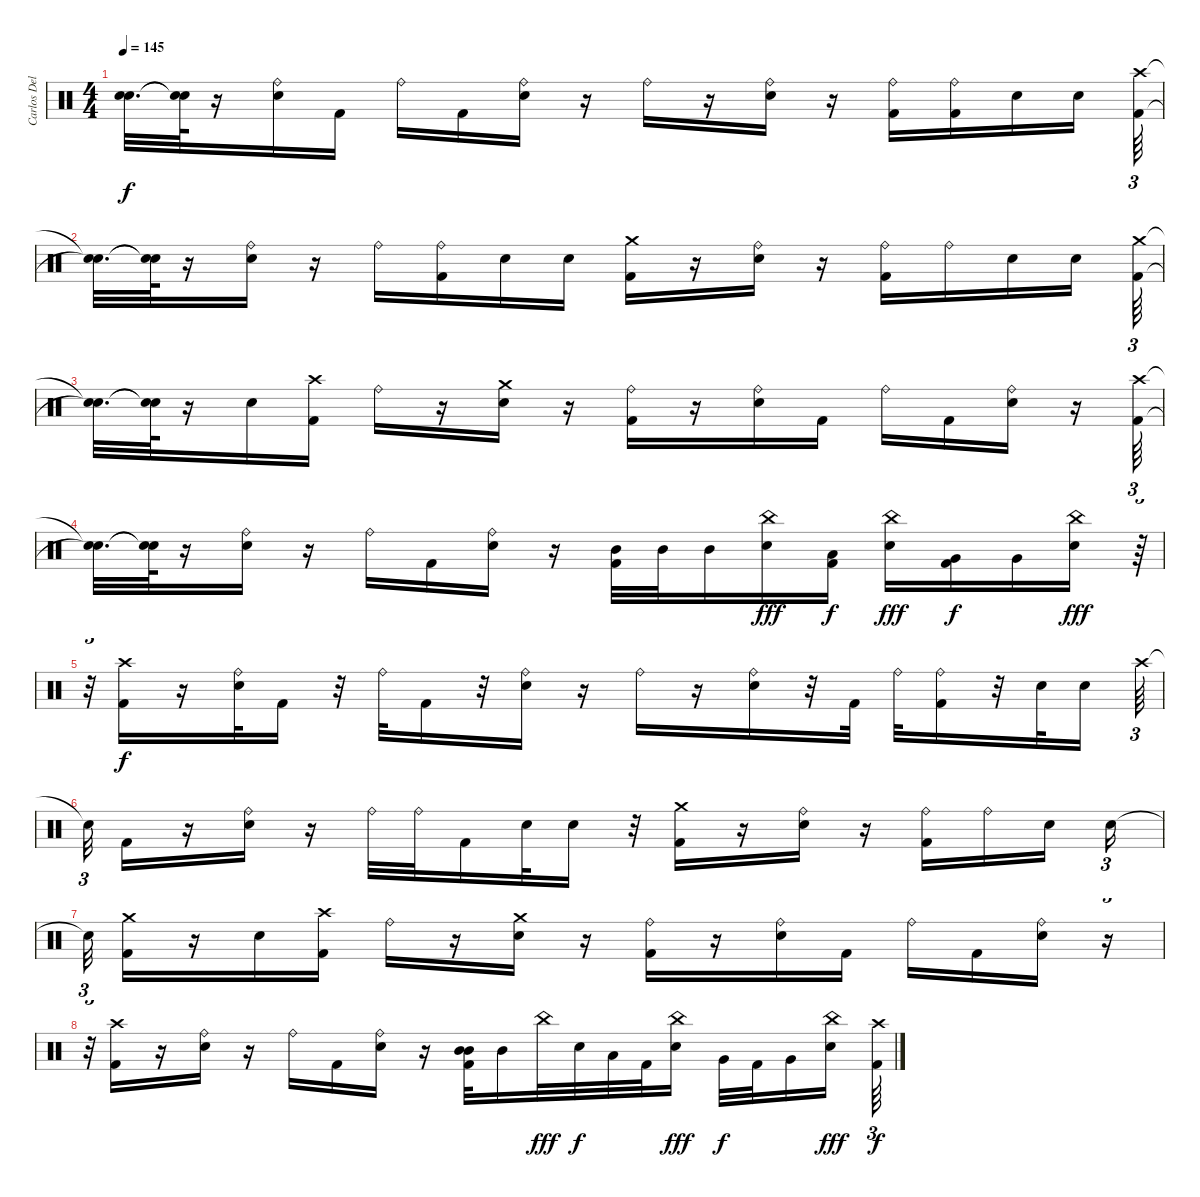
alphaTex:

\track ("Carlos Delgado" "Carlos Del") {instrument percussion}
\staff {score}
\articulation defaults
\ts (4 4)
\tempo 145
\clef neutral
\ks c
("Snare (hit)"{t} "Snare (hit)"{t}).32{d dy f} ("Snare (hit)"{t} "Snare (hit)"{t}).64 r.16 ("Ride (bell)" "Electric Snare (hit)").16 "Kick (hit) 2".16 "Ride (bell)".16 "Kick (hit) 2".16 ("Ride (bell)" "Electric Snare (hit)").16 r.16 "Ride (bell)".16 r.16 ("Ride (bell)" "Electric Snare (hit)").16 r.16 ("Kick (hit) 2" "Ride (bell)").16 ("Kick (hit) 2" "Ride (bell)").16 "Electric Snare (hit)".16 "Electric Snare (hit)".16 ("Crash high (hit)" "Kick (hit) 2").64{tu (3 2)} |
("Snare (hit)"{t} "Snare (hit)"{t}).32{d} ("Snare (hit)"{t} "Snare (hit)"{t}).64 r.16 ("Ride (bell)" "Electric Snare (hit)").16 r.16 "Ride (bell)".16 ("Ride (bell)" "Kick (hit) 2").16 "Electric Snare (hit)".16 "Electric Snare (hit)".16 ("Crash medium (hit)" "Kick (hit) 2").16 r.16 ("Ride (bell)" "Electric Snare (hit)").16 r.16 ("Kick (hit) 2" "Ride (bell)").16 "Ride (bell)".16 "Electric Snare (hit)".16 "Electric Snare (hit)".16 ("Kick (hit) 2" "Crash medium (hit)").64{tu (3 2)} |
("Snare (hit)"{t} "Snare (hit)"{t}).32{d} ("Snare (hit)"{t} "Snare (hit)"{t}).64 r.16 "Electric Snare (hit)".16 ("Kick (hit) 2" "Crash high (hit)").16 "Ride (bell)".16 r.16 ("Crash medium (hit)" "Electric Snare (hit)").16 r.16 ("Ride (bell)" "Kick (hit) 2").16 r.16 ("Ride (bell)" "Electric Snare (hit)").16 "Kick (hit) 2".16 "Ride (bell)".16 "Kick (hit) 2".16 ("Ride (bell)" "Electric Snare (hit)").16 r.16 ("Kick (hit) 2" "Crash high (hit)").64{tu (3 2)} |
("Snare (hit)"{t} "Snare (hit)"{t}).32{d} ("Snare (hit)"{t} "Snare (hit)"{t}).64 r.16 ("Ride (bell)" "Electric Snare (hit)").16 r.16 "Ride (bell)".16 "Kick (hit) 2".16 ("Ride (bell)" "Electric Snare (hit)").16 r.16 ("Mid Tom (hit)" "Kick (hit) 2").32 "Mid Tom (hit)".32 "Mid Tom (hit)".16 ("China (hit)" "Electric Snare (hit)").16{dy fff} ("Low Tom (hit)" "Kick (hit) 2").16{dy f} ("China (hit)" "Electric Snare (hit)").16{dy fff} ("Very Low Tom (hit)" "Kick (hit) 2").16{dy f} "Very Low Tom (hit)".16 ("Electric Snare (hit)" "China (hit)").16{dy fff} r.64{tu (3 2)} |
r.32{tu (3 2)} ("Crash high (hit)" "Kick (hit) 2").16{dy f} r.16 ("Ride (bell)" "Electric Snare (hit)").32 "Kick (hit) 2".16 r.32 "Ride (bell)".32 "Kick (hit) 2".16 r.32 ("Ride (bell)" "Electric Snare (hit)").16 r.16 "Ride (bell)".16 r.16 ("Ride (bell)" "Electric Snare (hit)").16 r.32 "Kick (hit) 2".32 "Ride (bell)".32 ("Kick (hit) 2" "Ride (bell)").16 r.32 "Electric Snare (hit)".32 "Electric Snare (hit)".16{beam splitsecondary} "Crash high (hit)".64{tu (3 2)} |
"Snare (hit)"{t}.32{tu (3 2)} "Kick (hit) 2".16 r.16 ("Ride (bell)" "Electric Snare (hit)").16 r.16 "Ride (bell)".32 "Ride (bell)".32 "Kick (hit) 2".16 "Electric Snare (hit)".32 "Electric Snare (hit)".16 r.32 ("Crash medium (hit)" "Kick (hit) 2").16 r.16 ("Ride (bell)" "Electric Snare (hit)").16 r.16 ("Kick (hit) 2" "Ride (bell)").16 "Ride (bell)".16 "Electric Snare (hit)".16{beam splitsecondary} "Electric Snare (hit)".16{tu (3 2)} |
"Snare (hit)"{t}.32{tu (3 2)} ("Kick (hit) 2" "Crash medium (hit)").16 r.16 "Electric Snare (hit)".16 ("Kick (hit) 2" "Crash high (hit)").16 "Ride (bell)".16 r.16 ("Crash medium (hit)" "Electric Snare (hit)").16 r.16 ("Ride (bell)" "Kick (hit) 2").16 r.16 ("Ride (bell)" "Electric Snare (hit)").16 "Kick (hit) 2".16 "Ride (bell)".16 "Kick (hit) 2".16 ("Ride (bell)" "Electric Snare (hit)").16 r.16{tu (3 2)} |
r.32{tu (3 2)} ("Kick (hit) 2" "Crash high (hit)").16 r.16 ("Ride (bell)" "Electric Snare (hit)").16 r.16 "Ride (bell)".16 "Kick (hit) 2".16 ("Ride (bell)" "Electric Snare (hit)").16 r.16 ("Mid Tom (hit)" "Kick (hit) 2" "Mid Tom (hit)").32 "Mid Tom (hit)".16 "China (hit)".32{dy fff} "Electric Snare (hit)".32{dy f} "Low Tom (hit)".32 "Kick (hit) 2".32 ("China (hit)" "Electric Snare (hit)").16{dy fff} "Very Low Tom (hit)".32{dy f} "Kick (hit) 2".32 "Very Low Tom (hit)".16 ("Electric Snare (hit)" "China (hit)").16{dy fff beam splitsecondary} ("Kick (hit) 2" "Crash high (hit)").64{tu (3 2) dy f}
